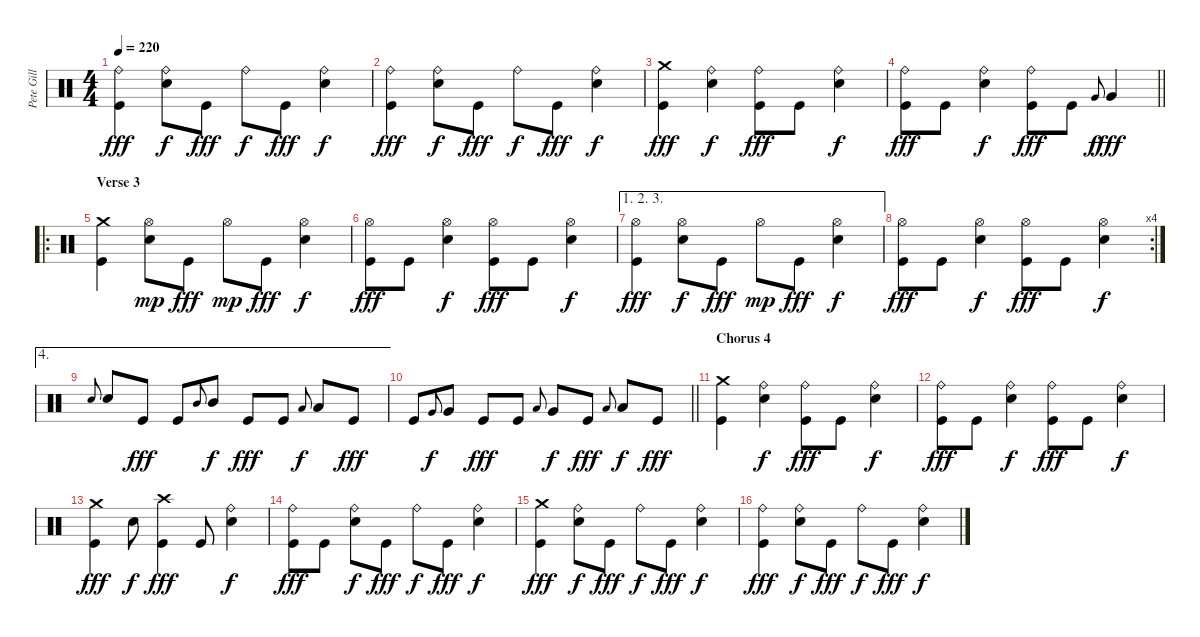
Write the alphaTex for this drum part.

\track ("Pete Gill" "Pete Gill") {instrument percussion}
\staff {score}
\articulation defaults
\ts (4 4)
\tempo 220
\clef neutral
\ks c
("Ride (bell)" "Kick (hit)").4{dy fff} ("Ride (bell)" "Electric Snare (hit)").8{dy f} "Kick (hit)".8{dy fff} "Ride (bell)".8{dy f} "Kick (hit)".8{dy fff} ("Ride (bell)" "Electric Snare (hit)").4{dy f} |
("Ride (bell)" "Kick (hit)").4{dy fff} ("Ride (bell)" "Electric Snare (hit)").8{dy f} "Kick (hit)".8{dy fff} "Ride (bell)".8{dy f} "Kick (hit)".8{dy fff} ("Ride (bell)" "Electric Snare (hit)").4{dy f} |
("Crash medium (hit)" "Kick (hit)").4{dy fff} ("Ride (bell)" "Electric Snare (hit)").4{dy f} ("Ride (bell)" "Kick (hit)").8{dy fff} "Kick (hit)".8 ("Ride (bell)" "Electric Snare (hit)").4{dy f} |
\barLineRight lightlight
("Ride (bell)" "Kick (hit)").8{dy fff} "Kick (hit)".8 ("Ride (bell)" "Electric Snare (hit)").4{dy f} ("Ride (bell)" "Kick (hit)").8{dy fff} "Kick (hit)".8 "Very Low Tom (hit)".8{gr onbeat dy f} "Very Low Tom (hit)".4{dy fff} |
\ro
\section ("" "Verse 3")
("Crash medium (hit)" "Kick (hit)").4 ("Hi-Hat (open)" "Electric Snare (hit)").8{dy mp} "Kick (hit)".8{dy fff} "Hi-Hat (open)".8{dy mp} "Kick (hit)".8{dy fff} ("Hi-Hat (open)" "Electric Snare (hit)").4{dy f} |
("Hi-Hat (open)" "Kick (hit)").8{dy fff} "Kick (hit)".8 ("Hi-Hat (open)" "Electric Snare (hit)").4{dy f} ("Hi-Hat (open)" "Kick (hit)").8{dy fff} "Kick (hit)".8 ("Hi-Hat (open)" "Electric Snare (hit)").4{dy f} |
\ae (1 2 3)
("Hi-Hat (open)" "Kick (hit)").4{dy fff} ("Hi-Hat (open)" "Electric Snare (hit)").8{dy f} "Kick (hit)".8{dy fff} "Hi-Hat (open)".8{dy mp} "Kick (hit)".8{dy fff} ("Hi-Hat (open)" "Electric Snare (hit)").4{dy f} |
\rc 4
("Hi-Hat (open)" "Kick (hit)").8{dy fff} "Kick (hit)".8 ("Hi-Hat (open)" "Electric Snare (hit)").4{dy f} ("Hi-Hat (open)" "Kick (hit)").8{dy fff} "Kick (hit)".8 ("Hi-Hat (open)" "Electric Snare (hit)").4{dy f} |
\ae 4 "Electric Snare (hit)".8{gr onbeat} "Electric Snare (hit)".8 "Kick (hit)".8{dy fff} "Kick (hit)".8 "Mid Tom (hit)".8{gr onbeat} "Mid Tom (hit)".8{dy f} "Kick (hit)".8{dy fff} "Kick (hit)".8 "Low Tom (hit)".8{gr onbeat dy f} "Low Tom (hit)".8 "Kick (hit)".8{dy fff}
|
\barLineRight lightlight "Kick (hit)".8 "Very Low Tom (hit)".8{gr onbeat dy f} "Very Low Tom (hit)".8 "Kick (hit)".8{dy fff} "Kick (hit)".8 "Low Floor Tom (hit)".8{gr onbeat} "Very Low Tom (hit)".8{dy f} "Kick (hit)".8{dy fff} "Low Floor Tom (hit)".8{gr onbeat} "Low Floor Tom (hit)".8{dy f} "Kick (hit)".8{dy fff}
|
\section ("" "Chorus 4")
("Crash medium (hit)" "Kick (hit)").4 ("Ride (bell)" "Electric Snare (hit)").4{dy f} ("Ride (bell)" "Kick (hit)").8{dy fff} "Kick (hit)".8 ("Ride (bell)" "Electric Snare (hit)").4{dy f} |
("Ride (bell)" "Kick (hit)").8{dy fff} "Kick (hit)".8 ("Ride (bell)" "Electric Snare (hit)").4{dy f} ("Ride (bell)" "Kick (hit)").8{dy fff} "Kick (hit)".8 ("Ride (bell)" "Electric Snare (hit)").4{dy f} |
("Crash medium (hit)" "Kick (hit)").4{dy fff} "Electric Snare (hit)".8{dy f} ("Crash high (hit)" "Kick (hit)").4{dy fff} "Kick (hit)".8 ("Ride (bell)" "Electric Snare (hit)").4{dy f} |
("Ride (bell)" "Kick (hit)").8{dy fff} "Kick (hit)".8 ("Ride (bell)" "Electric Snare (hit)").8{dy f} "Kick (hit)".8{dy fff} "Ride (bell)".8{dy f} "Kick (hit)".8{dy fff} ("Ride (bell)" "Electric Snare (hit)").4{dy f} |
("Crash medium (hit)" "Kick (hit)").4{dy fff} ("Ride (bell)" "Electric Snare (hit)").8{dy f} "Kick (hit)".8{dy fff} "Ride (bell)".8{dy f} "Kick (hit)".8{dy fff} ("Ride (bell)" "Electric Snare (hit)").4{dy f} |
("Ride (bell)" "Kick (hit)").4{dy fff} ("Ride (bell)" "Electric Snare (hit)").8{dy f} "Kick (hit)".8{dy fff} "Ride (bell)".8{dy f} "Kick (hit)".8{dy fff} ("Ride (bell)" "Electric Snare (hit)").4{dy f}
